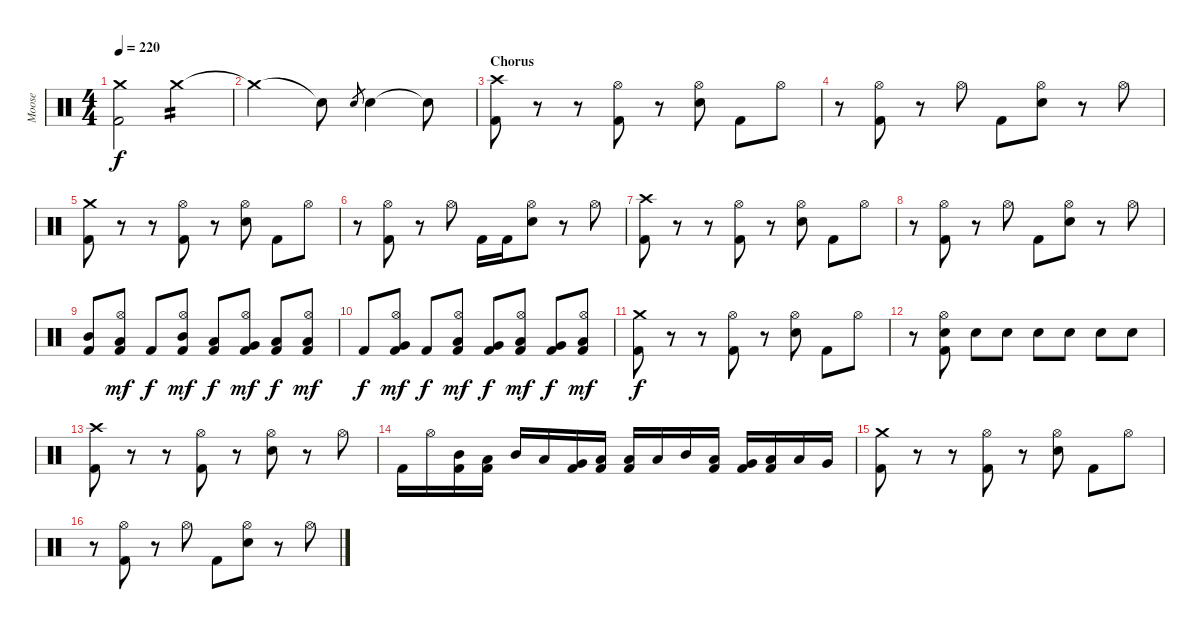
\track ("Moose" "Moose") {instrument percussion}
\staff {score}
\articulation defaults
\ts (4 4)
\tempo 220
\clef neutral
\ks c
("Kick (hit) 2" "Crash medium (hit)").2{dy f} "Crash medium (hit)".2{tp 2} |
"Crash medium (hit)"{t}.2 "Snare (hit)"{t}.8 "Snare (hit) 2".8{gr} "Snare (hit) 2".4 "Snare (hit)"{t}.8 |
\section ("" "Chorus")
("Kick (hit) 2" "Crash high (hit)").8 r.8 r.8 ("Kick (hit) 2" "Hi-Hat (open)").8 r.8 ("Snare (hit) 2" "Hi-Hat (open)").8 "Kick (hit) 2".8 "Hi-Hat (open)".8 |
r.8 ("Kick (hit) 2" "Hi-Hat (open)").8 r.8 "Hi-Hat (open)".8 "Kick (hit) 2".8 ("Snare (hit) 2" "Hi-Hat (open)").8 r.8 "Hi-Hat (open)".8 |
("Kick (hit) 2" "Crash medium (hit)").8 r.8 r.8 ("Kick (hit) 2" "Hi-Hat (open)").8 r.8 ("Snare (hit) 2" "Hi-Hat (open)").8 "Kick (hit) 2".8 "Hi-Hat (open)".8 |
r.8 ("Kick (hit) 2" "Hi-Hat (open)").8 r.8 "Hi-Hat (open)".8 "Kick (hit) 2".16 "Kick (hit) 2".16 ("Snare (hit) 2" "Hi-Hat (open)").8 r.8 "Hi-Hat (open)".8 |
("Kick (hit) 2" "Crash high (hit)").8 r.8 r.8 ("Kick (hit) 2" "Hi-Hat (open)").8 r.8 ("Snare (hit) 2" "Hi-Hat (open)").8 "Kick (hit) 2".8 "Hi-Hat (open)".8 |
r.8 ("Kick (hit) 2" "Hi-Hat (open)").8 r.8 "Hi-Hat (open)".8 "Kick (hit) 2".8 ("Snare (hit) 2" "Hi-Hat (open)").8 r.8 "Hi-Hat (open)".8 |
("Kick (hit) 2" "Mid Tom (hit)").8 ("Kick (hit) 2" "Low Tom (hit)" "Hi-Hat (open)").8{dy mf} "Kick (hit) 2".8{dy f} ("Kick (hit) 2" "Mid Tom (hit)" "Hi-Hat (open)").8{dy mf} ("Kick (hit) 2" "Low Tom (hit)").8{dy f} ("Kick (hit) 2" "Very Low Tom (hit)" "Hi-Hat (open)").8{dy mf} ("Kick (hit) 2" "Low Floor Tom (hit)").8{dy f} ("Kick (hit) 2" "Low Floor Tom (hit)" "Hi-Hat (open)").8{dy mf} |
"Kick (hit) 2".8{dy f} ("Kick (hit) 2" "Very Low Tom (hit)" "Hi-Hat (open)").8{dy mf} "Kick (hit) 2".8{dy f} ("Kick (hit) 2" "Low Tom (hit)" "Hi-Hat (open)").8{dy mf} ("Kick (hit) 2" "Very Low Tom (hit)").8{dy f} ("Kick (hit) 2" "Low Floor Tom (hit)" "Hi-Hat (open)").8{dy mf} ("Kick (hit) 2" "Very Low Tom (hit)").8{dy f} ("Kick (hit) 2" "Low Floor Tom (hit)" "Hi-Hat (open)").8{dy mf} |
("Kick (hit) 2" "Crash medium (hit)").8{dy f} r.8 r.8 ("Kick (hit) 2" "Hi-Hat (open)").8 r.8 ("Snare (hit) 2" "Hi-Hat (open)").8 "Kick (hit) 2".8 "Hi-Hat (open)".8 |
r.8 ("Kick (hit) 2" "Snare (hit) 2" "Hi-Hat (open)").8 "Snare (hit) 2".8 "Snare (hit) 2".8 "Snare (hit) 2".8 "Snare (hit) 2".8 "Snare (hit) 2".8 "Snare (hit) 2".8 |
("Kick (hit) 2" "Crash high (hit)").8 r.8 r.8 ("Kick (hit) 2" "Hi-Hat (open)").8 r.8 ("Snare (hit) 2" "Hi-Hat (open)").8 r.8 "Hi-Hat (open)".8 |
"Kick (hit) 2".16 "Hi-Hat (open)".16 ("Kick (hit) 2" "Mid Tom (hit)").16 ("Kick (hit) 2" "Low Tom (hit)").16 "Mid Tom (hit)".16 "Low Tom (hit)".16 ("Kick (hit) 2" "Very Low Tom (hit)").16 ("Kick (hit) 2" "Low Tom (hit)").16 ("Kick (hit) 2" "Low Floor Tom (hit)").16 "Low Tom (hit)".16 "Mid Tom (hit)".16 ("Kick (hit) 2" "Low Tom (hit)").16 ("Kick (hit) 2" "Very Low Tom (hit)").16 ("Kick (hit) 2" "Low Floor Tom (hit)").16 "Low Floor Tom (hit)".16 "Very Low Tom (hit)".16 |
("Kick (hit) 2" "Crash medium (hit)").8 r.8 r.8 ("Kick (hit) 2" "Hi-Hat (open)").8 r.8 ("Snare (hit) 2" "Hi-Hat (open)").8 "Kick (hit) 2".8 "Hi-Hat (open)".8 |
r.8 ("Kick (hit) 2" "Hi-Hat (open)").8 r.8 "Hi-Hat (open)".8 "Kick (hit) 2".8 ("Snare (hit) 2" "Hi-Hat (open)").8 r.8 "Hi-Hat (open)".8
